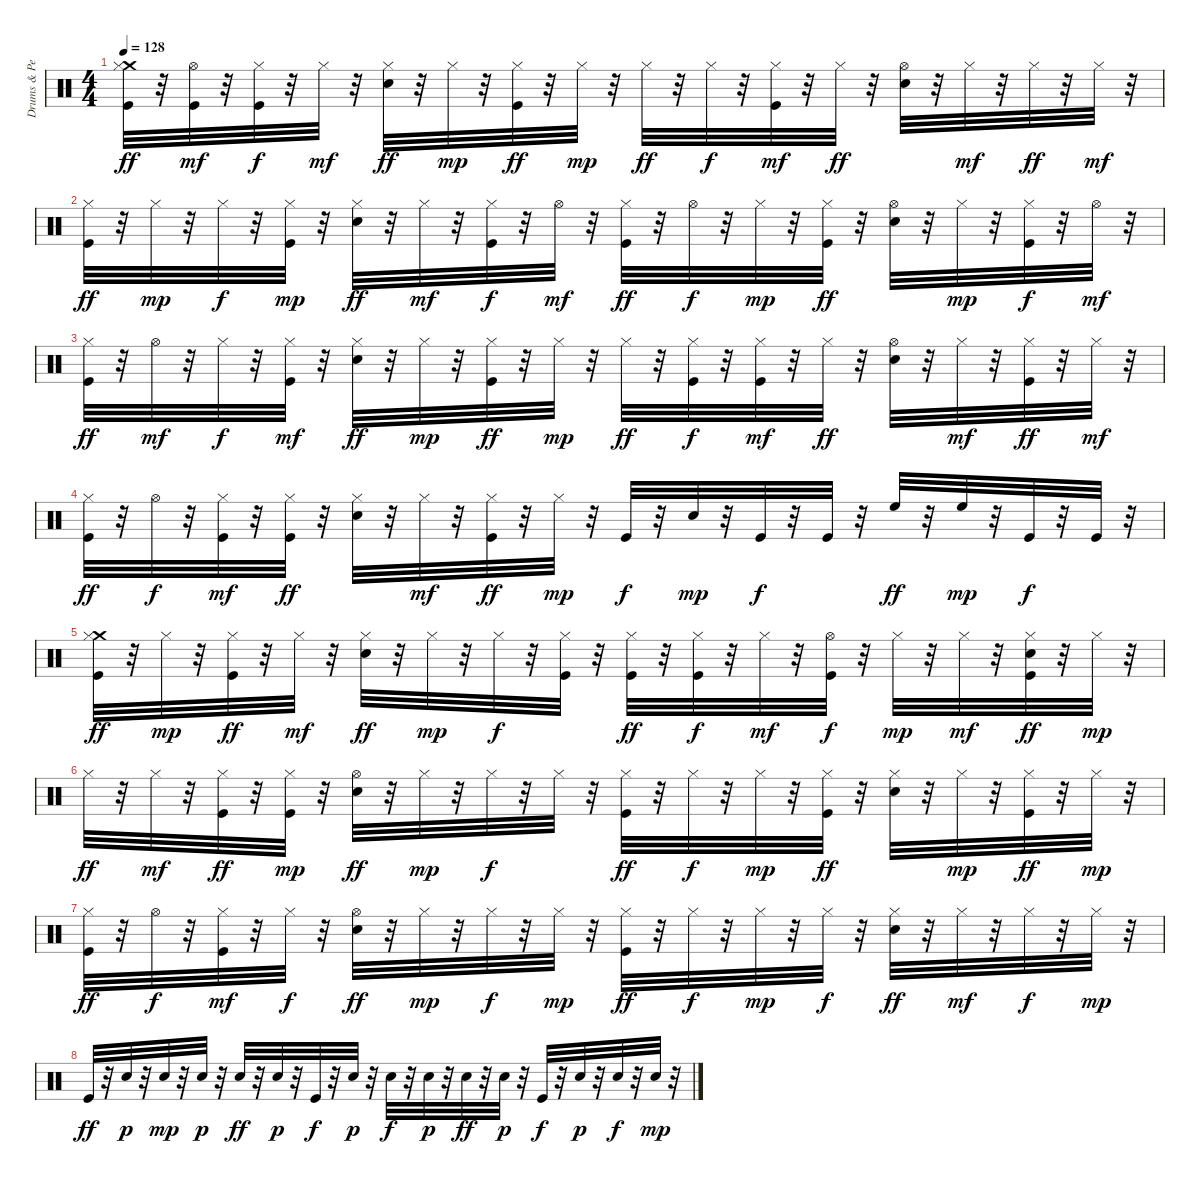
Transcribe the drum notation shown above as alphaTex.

\track ("Drums & Percussion" "Drums & Pe") {instrument percussion}
\staff {score}
\articulation defaults
\ts (4 4)
\tempo 128
\clef neutral
\ks c
("Crash medium (hit)" "Kick (hit)" "Hi-Hat (closed)").32{dy ff} r.32 ("Kick (hit)" "Hi-Hat (open)").32{dy mf} r.32 ("Kick (hit)" "Hi-Hat (closed)").32{dy f} r.32 "Hi-Hat (closed)".32{dy mf} r.32 ("Hi-Hat (closed)" "Electric Snare (hit)").32{dy ff} r.32 "Hi-Hat (closed)".32{dy mp} r.32 ("Kick (hit)" "Hi-Hat (closed)").32{dy ff} r.32 "Hi-Hat (closed)".32{dy mp} r.32 "Hi-Hat (closed)".32{dy ff} r.32 "Hi-Hat (closed)".32{dy f} r.32 ("Kick (hit)" "Hi-Hat (closed)").32{dy mf} r.32 "Hi-Hat (closed)".32{dy ff} r.32 ("Hi-Hat (open)" "Electric Snare (hit)").32 r.32 "Hi-Hat (closed)".32{dy mf} r.32 "Hi-Hat (closed)".32{dy ff} r.32 "Hi-Hat (closed)".32{dy mf} r.32 |
("Kick (hit)" "Hi-Hat (closed)").32{dy ff} r.32 "Hi-Hat (closed)".32{dy mp} r.32 "Hi-Hat (closed)".32{dy f} r.32 ("Kick (hit)" "Hi-Hat (closed)").32{dy mp} r.32 ("Hi-Hat (closed)" "Electric Snare (hit)").32{dy ff} r.32 "Hi-Hat (closed)".32{dy mf} r.32 ("Kick (hit)" "Hi-Hat (closed)").32{dy f} r.32 "Hi-Hat (open)".32{dy mf} r.32 ("Kick (hit)" "Hi-Hat (closed)").32{dy ff} r.32 "Hi-Hat (open)".32{dy f} r.32 "Hi-Hat (closed)".32{dy mp} r.32 ("Kick (hit)" "Hi-Hat (closed)").32{dy ff} r.32 ("Hi-Hat (open)" "Electric Snare (hit)").32 r.32 "Hi-Hat (closed)".32{dy mp} r.32 ("Kick (hit)" "Hi-Hat (closed)").32{dy f} r.32 "Hi-Hat (open)".32{dy mf} r.32 |
("Kick (hit)" "Hi-Hat (closed)").32{dy ff} r.32 "Hi-Hat (open)".32{dy mf} r.32 "Hi-Hat (closed)".32{dy f} r.32 ("Kick (hit)" "Hi-Hat (closed)").32{dy mf} r.32 ("Hi-Hat (closed)" "Electric Snare (hit)").32{dy ff} r.32 "Hi-Hat (closed)".32{dy mp} r.32 ("Kick (hit)" "Hi-Hat (closed)").32{dy ff} r.32 "Hi-Hat (closed)".32{dy mp} r.32 "Hi-Hat (closed)".32{dy ff} r.32 ("Kick (hit)" "Hi-Hat (closed)").32{dy f} r.32 ("Kick (hit)" "Hi-Hat (closed)").32{dy mf} r.32 "Hi-Hat (closed)".32{dy ff} r.32 ("Hi-Hat (open)" "Electric Snare (hit)").32 r.32 "Hi-Hat (closed)".32{dy mf} r.32 ("Kick (hit)" "Hi-Hat (closed)").32{dy ff} r.32 "Hi-Hat (closed)".32{dy mf} r.32 |
("Kick (hit)" "Hi-Hat (closed)").32{dy ff} r.32 "Hi-Hat (open)".32{dy f} r.32 ("Kick (hit)" "Hi-Hat (closed)").32{dy mf} r.32 ("Kick (hit)" "Hi-Hat (closed)").32{dy ff} r.32 ("Hi-Hat (closed)" "Electric Snare (hit)").32 r.32 "Hi-Hat (closed)".32{dy mf} r.32 ("Kick (hit)" "Hi-Hat (closed)").32{dy ff} r.32 "Hi-Hat (closed)".32{dy mp} r.32 "Kick (hit)".32{dy f} r.32 "Electric Snare (hit)".32{dy mp} r.32 "Kick (hit)".32{dy f} r.32 "Kick (hit)".32 r.32 "High Floor Tom (hit)".32{dy ff} r.32 "High Floor Tom (hit)".32{dy mp} r.32 "Kick (hit)".32{dy f} r.32 "Kick (hit)".32 r.32 |
("Crash medium (hit)" "Kick (hit)" "Hi-Hat (closed)").32{dy ff} r.32 "Hi-Hat (closed)".32{dy mp} r.32 ("Kick (hit)" "Hi-Hat (closed)").32{dy ff} r.32 "Hi-Hat (closed)".32{dy mf} r.32 ("Hi-Hat (closed)" "Electric Snare (hit)").32{dy ff} r.32 "Hi-Hat (closed)".32{dy mp} r.32 "Hi-Hat (closed)".32{dy f} r.32 ("Kick (hit)" "Hi-Hat (closed)").32 r.32 ("Kick (hit)" "Hi-Hat (closed)").32{dy ff} r.32 ("Kick (hit)" "Hi-Hat (closed)").32{dy f} r.32 "Hi-Hat (closed)".32{dy mf} r.32 ("Kick (hit)" "Hi-Hat (open)").32{dy f} r.32 "Hi-Hat (closed)".32{dy mp} r.32 "Hi-Hat (closed)".32{dy mf} r.32 ("Kick (hit)" "Hi-Hat (closed)" "Electric Snare (hit)").32{dy ff} r.32 "Hi-Hat (closed)".32{dy mp} r.32 |
"Hi-Hat (closed)".32{dy ff} r.32 "Hi-Hat (closed)".32{dy mf} r.32 ("Kick (hit)" "Hi-Hat (closed)").32{dy ff} r.32 ("Kick (hit)" "Hi-Hat (closed)").32{dy mp} r.32 ("Hi-Hat (open)" "Electric Snare (hit)").32{dy ff} r.32 "Hi-Hat (closed)".32{dy mp} r.32 "Hi-Hat (closed)".32{dy f} r.32 "Hi-Hat (closed)".32 r.32 ("Kick (hit)" "Hi-Hat (closed)").32{dy ff} r.32 "Hi-Hat (closed)".32{dy f} r.32 "Hi-Hat (closed)".32{dy mp} r.32 ("Kick (hit)" "Hi-Hat (closed)").32{dy ff} r.32 ("Hi-Hat (closed)" "Electric Snare (hit)").32 r.32 "Hi-Hat (closed)".32{dy mp} r.32 ("Kick (hit)" "Hi-Hat (closed)").32{dy ff} r.32 "Hi-Hat (closed)".32{dy mp} r.32 |
("Kick (hit)" "Hi-Hat (closed)").32{dy ff} r.32 "Hi-Hat (open)".32{dy f} r.32 ("Kick (hit)" "Hi-Hat (closed)").32{dy mf} r.32 "Hi-Hat (closed)".32{dy f} r.32 ("Hi-Hat (open)" "Electric Snare (hit)").32{dy ff} r.32 "Hi-Hat (closed)".32{dy mp} r.32 "Hi-Hat (closed)".32{dy f} r.32 "Hi-Hat (closed)".32{dy mp} r.32 ("Kick (hit)" "Hi-Hat (closed)").32{dy ff} r.32 "Hi-Hat (closed)".32{dy f} r.32 "Hi-Hat (closed)".32{dy mp} r.32 "Hi-Hat (closed)".32{dy f} r.32 ("Hi-Hat (closed)" "Electric Snare (hit)").32{dy ff} r.32 "Hi-Hat (closed)".32{dy mf} r.32 "Hi-Hat (closed)".32{dy f} r.32 "Hi-Hat (closed)".32{dy mp} r.32 |
"Kick (hit)".32{dy ff} r.32 "Electric Snare (hit)".32{dy p} r.32 "Electric Snare (hit)".32{dy mp} r.32 "Electric Snare (hit)".32{dy p} r.32 "Electric Snare (hit)".32{dy ff} r.32 "Electric Snare (hit)".32{dy p} r.32 "Kick (hit)".32{dy f} r.32 "Electric Snare (hit)".32{dy p} r.32 "Electric Snare (hit)".32{dy f} r.32 "Electric Snare (hit)".32{dy p} r.32 "Electric Snare (hit)".32{dy ff} r.32 "Electric Snare (hit)".32{dy p} r.32 "Kick (hit)".32{dy f} r.32 "Electric Snare (hit)".32{dy p} r.32 "Electric Snare (hit)".32{dy f} r.32 "Electric Snare (hit)".32{dy mp} r.32
